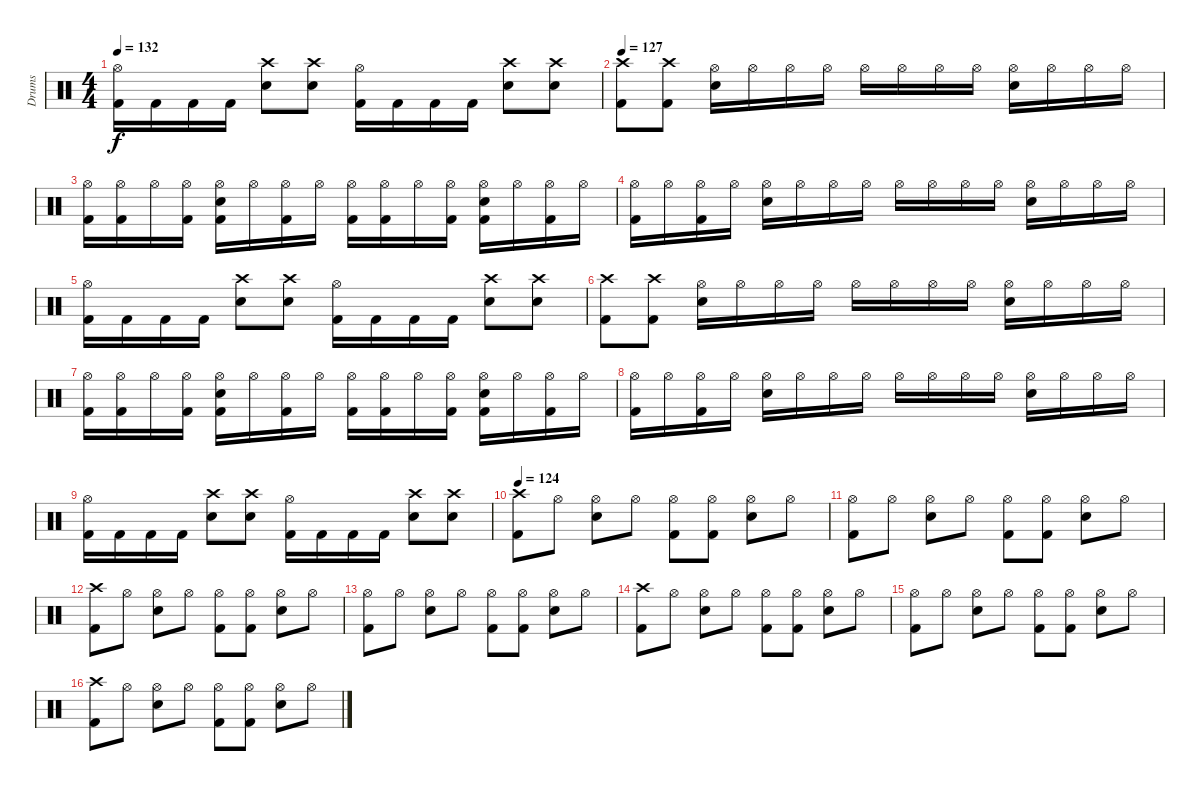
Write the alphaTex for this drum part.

\track ("Drums" "Drums") {instrument percussion}
\staff {score}
\articulation defaults
\ts (4 4)
\tempo 132
\clef neutral
\ks c
("Hi-Hat (open)" "Kick (hit) 2").16{dy f volume 13} "Kick (hit) 2".16 "Kick (hit) 2".16 "Kick (hit) 2".16 ("Crash high (hit)" "Electric Snare (hit)").8 ("Crash high (hit)" "Electric Snare (hit)").8 ("Hi-Hat (open)" "Kick (hit) 2").16 "Kick (hit) 2".16 "Kick (hit) 2".16 "Kick (hit) 2".16 ("Crash high (hit)" "Electric Snare (hit)").8 ("Crash high (hit)" "Electric Snare (hit)").8 |
\tempo 127
("Crash high (hit)" "Kick (hit) 2").8 ("Crash high (hit)" "Kick (hit) 2").8 ("Hi-Hat (open)" "Electric Snare (hit)").16{volume 13} "Hi-Hat (open)".16{volume 9} "Hi-Hat (open)".16{volume 7} "Hi-Hat (open)".16{volume 7} "Hi-Hat (open)".16{volume 14} "Hi-Hat (open)".16{volume 10} "Hi-Hat (open)".16{volume 7} "Hi-Hat (open)".16{volume 7} ("Hi-Hat (open)" "Electric Snare (hit)").16{volume 13} "Hi-Hat (open)".16{volume 10} "Hi-Hat (open)".16{volume 7} "Hi-Hat (open)".16{volume 7} |
("Hi-Hat (open)" "Kick (hit) 2").16{volume 13} ("Hi-Hat (open)" "Kick (hit) 2").16{volume 11} "Hi-Hat (open)".16{volume 7} ("Hi-Hat (open)" "Kick (hit) 2").16{volume 6} ("Hi-Hat (open)" "Electric Snare (hit)" "Kick (hit) 2").16{volume 13} "Hi-Hat (open)".16{volume 10} ("Hi-Hat (open)" "Kick (hit) 2").16{volume 8} "Hi-Hat (open)".16{volume 7} ("Hi-Hat (open)" "Kick (hit) 2").16{volume 13} ("Hi-Hat (open)" "Kick (hit) 2").16{volume 10} "Hi-Hat (open)".16{volume 8} ("Hi-Hat (open)" "Kick (hit) 2").16{volume 6} ("Hi-Hat (open)" "Electric Snare (hit)" "Kick (hit) 2").16{volume 13} "Hi-Hat (open)".16{volume 10} ("Hi-Hat (open)" "Kick (hit) 2").16{volume 9} "Hi-Hat (open)".16{volume 7} |
("Hi-Hat (open)" "Kick (hit) 2").16{volume 13} "Hi-Hat (open)".16{volume 11} ("Hi-Hat (open)" "Kick (hit) 2").16{volume 7} "Hi-Hat (open)".16{volume 6} ("Hi-Hat (open)" "Electric Snare (hit)").16{volume 13} "Hi-Hat (open)".16{volume 10} "Hi-Hat (open)".16{volume 8} "Hi-Hat (open)".16{volume 7} "Hi-Hat (open)".16{volume 13} "Hi-Hat (open)".16{volume 10} "Hi-Hat (open)".16{volume 8} "Hi-Hat (open)".16{volume 6} ("Hi-Hat (open)" "Electric Snare (hit)").16{volume 13} "Hi-Hat (open)".16{volume 10} "Hi-Hat (open)".16{volume 9} "Hi-Hat (open)".16{volume 7} |
("Hi-Hat (open)" "Kick (hit) 2").16{volume 13} "Kick (hit) 2".16 "Kick (hit) 2".16 "Kick (hit) 2".16 ("Crash high (hit)" "Electric Snare (hit)").8 ("Crash high (hit)" "Electric Snare (hit)").8 ("Hi-Hat (open)" "Kick (hit) 2").16 "Kick (hit) 2".16 "Kick (hit) 2".16 "Kick (hit) 2".16 ("Crash high (hit)" "Electric Snare (hit)").8 ("Crash high (hit)" "Electric Snare (hit)").8 |
("Crash high (hit)" "Kick (hit) 2").8 ("Crash high (hit)" "Kick (hit) 2").8 ("Hi-Hat (open)" "Electric Snare (hit)").16{volume 13} "Hi-Hat (open)".16{volume 9} "Hi-Hat (open)".16{volume 7} "Hi-Hat (open)".16{volume 7} "Hi-Hat (open)".16{volume 14} "Hi-Hat (open)".16{volume 10} "Hi-Hat (open)".16{volume 7} "Hi-Hat (open)".16{volume 7} ("Hi-Hat (open)" "Electric Snare (hit)").16{volume 13} "Hi-Hat (open)".16{volume 10} "Hi-Hat (open)".16{volume 7} "Hi-Hat (open)".16{volume 7} |
("Hi-Hat (open)" "Kick (hit) 2").16{volume 13} ("Hi-Hat (open)" "Kick (hit) 2").16{volume 11} "Hi-Hat (open)".16{volume 7} ("Hi-Hat (open)" "Kick (hit) 2").16{volume 6} ("Hi-Hat (open)" "Electric Snare (hit)" "Kick (hit) 2").16{volume 13} "Hi-Hat (open)".16{volume 10} ("Hi-Hat (open)" "Kick (hit) 2").16{volume 8} "Hi-Hat (open)".16{volume 7} ("Hi-Hat (open)" "Kick (hit) 2").16{volume 13} ("Hi-Hat (open)" "Kick (hit) 2").16{volume 10} "Hi-Hat (open)".16{volume 8} ("Hi-Hat (open)" "Kick (hit) 2").16{volume 6} ("Hi-Hat (open)" "Electric Snare (hit)" "Kick (hit) 2").16{volume 13} "Hi-Hat (open)".16{volume 10} ("Hi-Hat (open)" "Kick (hit) 2").16{volume 9} "Hi-Hat (open)".16{volume 7} |
("Hi-Hat (open)" "Kick (hit) 2").16{volume 13} "Hi-Hat (open)".16{volume 11} ("Hi-Hat (open)" "Kick (hit) 2").16{volume 7} "Hi-Hat (open)".16{volume 6} ("Hi-Hat (open)" "Electric Snare (hit)").16{volume 13} "Hi-Hat (open)".16{volume 10} "Hi-Hat (open)".16{volume 8} "Hi-Hat (open)".16{volume 7} "Hi-Hat (open)".16{volume 13} "Hi-Hat (open)".16{volume 10} "Hi-Hat (open)".16{volume 8} "Hi-Hat (open)".16{volume 6} ("Hi-Hat (open)" "Electric Snare (hit)").16{volume 13} "Hi-Hat (open)".16{volume 10} "Hi-Hat (open)".16{volume 9} "Hi-Hat (open)".16{volume 7} |
("Hi-Hat (open)" "Kick (hit) 2").16{volume 13} "Kick (hit) 2".16 "Kick (hit) 2".16 "Kick (hit) 2".16 ("Crash high (hit)" "Electric Snare (hit)").8 ("Crash high (hit)" "Electric Snare (hit)").8 ("Hi-Hat (open)" "Kick (hit) 2").16 "Kick (hit) 2".16 "Kick (hit) 2".16 "Kick (hit) 2".16 ("Crash high (hit)" "Electric Snare (hit)").8 ("Crash high (hit)" "Electric Snare (hit)").8 |
\tempo 124
("Crash high (hit)" "Kick (hit) 2").8 "Hi-Hat (open)".8 ("Hi-Hat (open)" "Electric Snare (hit)").8 "Hi-Hat (open)".8 ("Hi-Hat (open)" "Kick (hit) 2").8 ("Hi-Hat (open)" "Kick (hit) 2").8 ("Hi-Hat (open)" "Electric Snare (hit)").8 "Hi-Hat (open)".8 |
("Hi-Hat (open)" "Kick (hit) 2").8 "Hi-Hat (open)".8 ("Hi-Hat (open)" "Electric Snare (hit)").8 "Hi-Hat (open)".8 ("Hi-Hat (open)" "Kick (hit) 2").8 ("Hi-Hat (open)" "Kick (hit) 2").8 ("Hi-Hat (open)" "Electric Snare (hit)").8 "Hi-Hat (open)".8 |
("Crash high (hit)" "Kick (hit) 2").8 "Hi-Hat (open)".8 ("Hi-Hat (open)" "Electric Snare (hit)").8 "Hi-Hat (open)".8 ("Hi-Hat (open)" "Kick (hit) 2").8 ("Hi-Hat (open)" "Kick (hit) 2").8 ("Hi-Hat (open)" "Electric Snare (hit)").8 "Hi-Hat (open)".8 |
("Hi-Hat (open)" "Kick (hit) 2").8 "Hi-Hat (open)".8 ("Hi-Hat (open)" "Electric Snare (hit)").8 "Hi-Hat (open)".8 ("Hi-Hat (open)" "Kick (hit) 2").8 ("Hi-Hat (open)" "Kick (hit) 2").8 ("Hi-Hat (open)" "Electric Snare (hit)").8 "Hi-Hat (open)".8 |
("Crash high (hit)" "Kick (hit) 2").8 "Hi-Hat (open)".8 ("Hi-Hat (open)" "Electric Snare (hit)").8 "Hi-Hat (open)".8 ("Hi-Hat (open)" "Kick (hit) 2").8 ("Hi-Hat (open)" "Kick (hit) 2").8 ("Hi-Hat (open)" "Electric Snare (hit)").8 "Hi-Hat (open)".8 |
("Hi-Hat (open)" "Kick (hit) 2").8 "Hi-Hat (open)".8 ("Hi-Hat (open)" "Electric Snare (hit)").8 "Hi-Hat (open)".8 ("Hi-Hat (open)" "Kick (hit) 2").8 ("Hi-Hat (open)" "Kick (hit) 2").8 ("Hi-Hat (open)" "Electric Snare (hit)").8 "Hi-Hat (open)".8 |
("Crash high (hit)" "Kick (hit) 2").8 "Hi-Hat (open)".8 ("Hi-Hat (open)" "Electric Snare (hit)").8 "Hi-Hat (open)".8 ("Hi-Hat (open)" "Kick (hit) 2").8 ("Hi-Hat (open)" "Kick (hit) 2").8 ("Hi-Hat (open)" "Electric Snare (hit)").8 "Hi-Hat (open)".8
